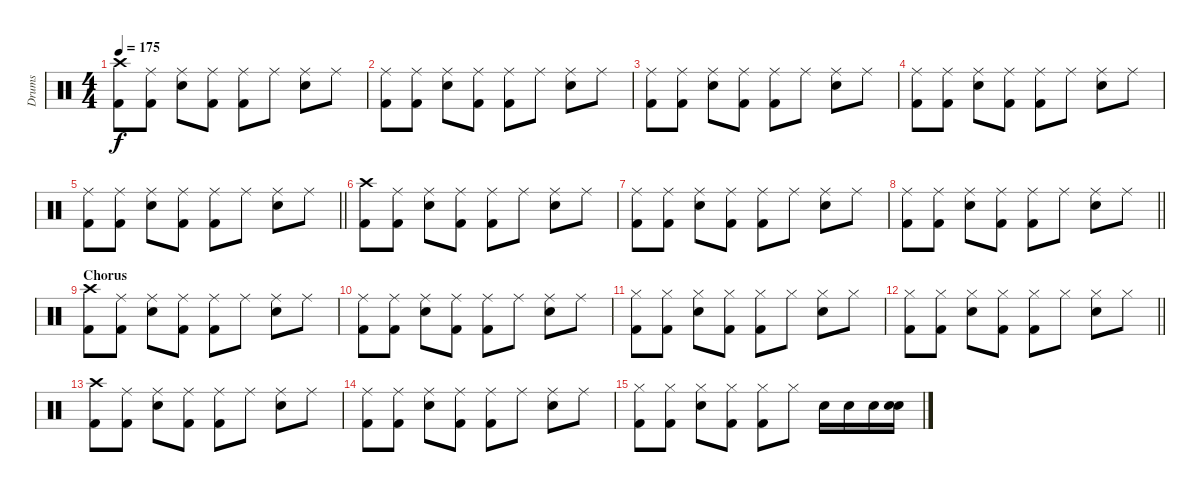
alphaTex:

\track ("Drums" "Drums") {instrument percussion}
\staff {score}
\articulation defaults
\ts (4 4)
\tempo 175
\clef neutral
\ks c
("Crash high (hit)" "Kick (hit) 2").8{dy f} ("Ride (middle)" "Kick (hit) 2").8 ("Ride (middle)" "Snare (hit) 2").8 ("Ride (middle)" "Kick (hit) 2").8 ("Ride (middle)" "Kick (hit) 2").8 "Ride (middle)".8 ("Ride (middle)" "Snare (hit) 2").8 "Ride (middle)".8 |
("Ride (middle)" "Kick (hit) 2").8 ("Ride (middle)" "Kick (hit) 2").8 ("Ride (middle)" "Snare (hit) 2").8 ("Ride (middle)" "Kick (hit) 2").8 ("Ride (middle)" "Kick (hit) 2").8 "Ride (middle)".8 ("Ride (middle)" "Snare (hit) 2").8 "Ride (middle)".8 |
("Ride (middle)" "Kick (hit) 2").8 ("Ride (middle)" "Kick (hit) 2").8 ("Ride (middle)" "Snare (hit) 2").8 ("Ride (middle)" "Kick (hit) 2").8 ("Ride (middle)" "Kick (hit) 2").8 "Ride (middle)".8 ("Ride (middle)" "Snare (hit) 2").8 "Ride (middle)".8 |
("Ride (middle)" "Kick (hit) 2").8 ("Ride (middle)" "Kick (hit) 2").8 ("Ride (middle)" "Snare (hit) 2").8 ("Ride (middle)" "Kick (hit) 2").8 ("Ride (middle)" "Kick (hit) 2").8 "Ride (middle)".8 ("Ride (middle)" "Snare (hit) 2").8 "Ride (middle)".8 |
\barLineRight lightlight
("Ride (middle)" "Kick (hit) 2").8 ("Ride (middle)" "Kick (hit) 2").8 ("Ride (middle)" "Snare (hit) 2").8 ("Ride (middle)" "Kick (hit) 2").8 ("Ride (middle)" "Kick (hit) 2").8 "Ride (middle)".8 ("Ride (middle)" "Snare (hit) 2").8 "Ride (middle)".8 |
\section ("" "")
("Crash high (hit)" "Kick (hit) 2").8 ("Ride (middle)" "Kick (hit) 2").8 ("Ride (middle)" "Snare (hit) 2").8 ("Ride (middle)" "Kick (hit) 2").8 ("Ride (middle)" "Kick (hit) 2").8 "Ride (middle)".8 ("Ride (middle)" "Snare (hit) 2").8 "Ride (middle)".8 |
("Ride (middle)" "Kick (hit) 2").8 ("Ride (middle)" "Kick (hit) 2").8 ("Ride (middle)" "Snare (hit) 2").8 ("Ride (middle)" "Kick (hit) 2").8 ("Ride (middle)" "Kick (hit) 2").8 "Ride (middle)".8 ("Ride (middle)" "Snare (hit) 2").8 "Ride (middle)".8 |
\barLineRight lightlight
("Ride (middle)" "Kick (hit) 2").8 ("Ride (middle)" "Kick (hit) 2").8 ("Ride (middle)" "Snare (hit) 2").8 ("Ride (middle)" "Kick (hit) 2").8 ("Ride (middle)" "Kick (hit) 2").8 "Ride (middle)".8 ("Ride (middle)" "Snare (hit) 2").8 "Ride (middle)".8 |
\section ("" "Chorus")
("Crash high (hit)" "Kick (hit) 2").8 ("Ride (middle)" "Kick (hit) 2").8 ("Ride (middle)" "Snare (hit) 2").8 ("Ride (middle)" "Kick (hit) 2").8 ("Ride (middle)" "Kick (hit) 2").8 "Ride (middle)".8 ("Ride (middle)" "Snare (hit) 2").8 "Ride (middle)".8 |
("Ride (middle)" "Kick (hit) 2").8 ("Ride (middle)" "Kick (hit) 2").8 ("Ride (middle)" "Snare (hit) 2").8 ("Ride (middle)" "Kick (hit) 2").8 ("Ride (middle)" "Kick (hit) 2").8 "Ride (middle)".8 ("Ride (middle)" "Snare (hit) 2").8 "Ride (middle)".8 |
("Hi-Hat (closed)" "Kick (hit) 2").8 ("Hi-Hat (closed)" "Kick (hit) 2").8 ("Hi-Hat (closed)" "Snare (hit) 2").8 ("Hi-Hat (closed)" "Kick (hit) 2").8 ("Hi-Hat (closed)" "Kick (hit) 2").8 "Hi-Hat (closed)".8 ("Hi-Hat (closed)" "Snare (hit) 2").8 "Hi-Hat (closed)".8 |
\barLineRight lightlight
("Hi-Hat (closed)" "Kick (hit) 2").8 ("Hi-Hat (closed)" "Kick (hit) 2").8 ("Hi-Hat (closed)" "Snare (hit) 2").8 ("Hi-Hat (closed)" "Kick (hit) 2").8 ("Hi-Hat (closed)" "Kick (hit) 2").8 "Hi-Hat (closed)".8 ("Hi-Hat (closed)" "Snare (hit) 2").8 "Hi-Hat (closed)".8 |
("Crash high (hit)" "Kick (hit) 2").8 ("Ride (middle)" "Kick (hit) 2").8 ("Ride (middle)" "Snare (hit) 2").8 ("Ride (middle)" "Kick (hit) 2").8 ("Ride (middle)" "Kick (hit) 2").8 "Ride (middle)".8 ("Ride (middle)" "Snare (hit) 2").8 "Ride (middle)".8 |
("Ride (middle)" "Kick (hit) 2").8 ("Ride (middle)" "Kick (hit) 2").8 ("Ride (middle)" "Snare (hit) 2").8 ("Ride (middle)" "Kick (hit) 2").8 ("Ride (middle)" "Kick (hit) 2").8 "Ride (middle)".8 ("Ride (middle)" "Snare (hit) 2").8 "Ride (middle)".8 |
("Hi-Hat (closed)" "Kick (hit) 2").8 ("Hi-Hat (closed)" "Kick (hit) 2").8 ("Hi-Hat (closed)" "Snare (hit) 2").8 ("Hi-Hat (closed)" "Kick (hit) 2").8 ("Hi-Hat (closed)" "Kick (hit) 2").8 "Hi-Hat (closed)".8 "Snare (hit) 2".16 "Snare (hit) 2".16 "Snare (hit) 2".16 ("Snare (hit) 2" "Snare (hit) 2").16
